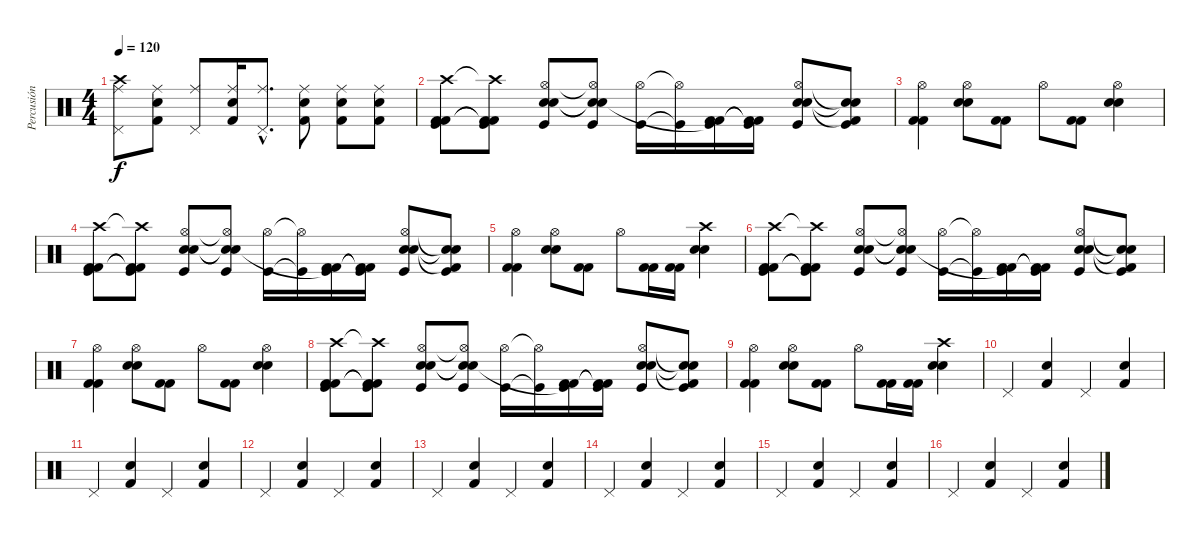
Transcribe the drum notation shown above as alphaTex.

\track ("Percusión" "Percusión") {instrument percussion}
\staff {score}
\articulation defaults
\ts (4 4)
\tempo 120
\clef neutral
\ks c
("Crash high (hit)" "Ride (middle)" "Pedal Hi-Hat (hit)").8{dy f} ("Ride (middle)" "Kick (hit) 2" "Snare (hit) 2").8 ("Ride (middle)" "Pedal Hi-Hat (hit)").8 ("Ride (middle)" "Kick (hit) 2" "Snare (hit) 2").16 ("Ride (middle)"{hac} "Pedal Hi-Hat (hit)"{hac}).8{d} ("Ride (middle)" "Kick (hit) 2" "Snare (hit) 2").8 ("Ride (middle)" "Kick (hit) 2" "Snare (hit) 2").8 ("Ride (middle)" "Kick (hit) 2" "Snare (hit) 2").8 |
("Crash high (hit)" "Kick (hit) 2" "Kick (hit) 2" "Kick (hit)").8 ("Crash high (hit)"{t} "Kick (hit) 2"{t} "Kick (hit) 2"{t} "Kick (hit)").8 ("Hi-Hat (open)" "Electric Snare (hit)" "Electric Snare (hit)" "Kick (hit)").8 ("Hi-Hat (open)"{t} "Electric Snare (hit)"{t} "Electric Snare (hit)"{t} "Kick (hit)").8 ("Hi-Hat (open)" "Kick (hit)").16 ("Hi-Hat (open)"{t} "Kick (hit)"{t}).16 ("Kick (hit) 2" "Kick (hit) 2" "Kick (hit)"{t}).16 ("Kick (hit) 2"{t} "Kick (hit) 2"{t} "Kick (hit)").16 ("Hi-Hat (open)" "Electric Snare (hit)" "Electric Snare (hit)" "Kick (hit)").8 ("Snare (hit)"{t} "Snare (hit)"{t} "Kick (hit) 2"{t} "Kick (hit)").8 |
("Hi-Hat (open)" "Kick (hit) 2" "Kick (hit) 2").4 ("Hi-Hat (open)" "Electric Snare (hit)" "Electric Snare (hit)").8 ("Kick (hit) 2" "Kick (hit) 2").8 "Hi-Hat (open)".8 ("Kick (hit) 2" "Kick (hit) 2").8 ("Hi-Hat (open)" "Electric Snare (hit)" "Electric Snare (hit)").4 |
("Crash high (hit)" "Kick (hit) 2" "Kick (hit) 2" "Kick (hit)").8 ("Crash high (hit)"{t} "Kick (hit) 2"{t} "Kick (hit) 2"{t} "Kick (hit)").8 ("Hi-Hat (open)" "Electric Snare (hit)" "Electric Snare (hit)" "Kick (hit)").8 ("Hi-Hat (open)"{t} "Electric Snare (hit)"{t} "Electric Snare (hit)"{t} "Kick (hit)").8 ("Hi-Hat (open)" "Kick (hit)").16 ("Hi-Hat (open)"{t} "Kick (hit)"{t}).16 ("Kick (hit) 2" "Kick (hit) 2" "Kick (hit)"{t}).16 ("Kick (hit) 2"{t} "Kick (hit) 2"{t} "Kick (hit)").16 ("Hi-Hat (open)" "Electric Snare (hit)" "Electric Snare (hit)" "Kick (hit)").8 ("Snare (hit)"{t} "Snare (hit)"{t} "Kick (hit) 2"{t} "Kick (hit)").8 |
("Hi-Hat (open)" "Kick (hit) 2" "Kick (hit) 2").4 ("Hi-Hat (open)" "Electric Snare (hit)" "Electric Snare (hit)").8 ("Kick (hit) 2" "Kick (hit) 2").8 "Hi-Hat (open)".8 ("Kick (hit) 2" "Kick (hit) 2").16 ("Kick (hit) 2" "Kick (hit) 2").16 ("Crash high (hit)" "Electric Snare (hit)" "Electric Snare (hit)").4 |
("Crash high (hit)" "Kick (hit) 2" "Kick (hit) 2" "Kick (hit)").8 ("Crash high (hit)"{t} "Kick (hit) 2"{t} "Kick (hit) 2"{t} "Kick (hit)").8 ("Hi-Hat (open)" "Electric Snare (hit)" "Electric Snare (hit)" "Kick (hit)").8 ("Hi-Hat (open)"{t} "Electric Snare (hit)"{t} "Electric Snare (hit)"{t} "Kick (hit)").8 ("Hi-Hat (open)" "Kick (hit)").16 ("Hi-Hat (open)"{t} "Kick (hit)"{t}).16 ("Kick (hit) 2" "Kick (hit) 2" "Kick (hit)"{t}).16 ("Kick (hit) 2"{t} "Kick (hit) 2"{t} "Kick (hit)").16 ("Hi-Hat (open)" "Electric Snare (hit)" "Electric Snare (hit)" "Kick (hit)").8 ("Snare (hit)"{t} "Snare (hit)"{t} "Kick (hit) 2"{t} "Kick (hit)").8 |
("Hi-Hat (open)" "Kick (hit) 2" "Kick (hit) 2").4 ("Hi-Hat (open)" "Electric Snare (hit)" "Electric Snare (hit)").8 ("Kick (hit) 2" "Kick (hit) 2").8 "Hi-Hat (open)".8 ("Kick (hit) 2" "Kick (hit) 2").8 ("Hi-Hat (open)" "Electric Snare (hit)" "Electric Snare (hit)").4 |
("Crash high (hit)" "Kick (hit) 2" "Kick (hit) 2" "Kick (hit)").8 ("Crash high (hit)"{t} "Kick (hit) 2"{t} "Kick (hit) 2"{t} "Kick (hit)").8 ("Hi-Hat (open)" "Electric Snare (hit)" "Electric Snare (hit)" "Kick (hit)").8 ("Hi-Hat (open)"{t} "Electric Snare (hit)"{t} "Electric Snare (hit)"{t} "Kick (hit)").8 ("Hi-Hat (open)" "Kick (hit)").16 ("Hi-Hat (open)"{t} "Kick (hit)"{t}).16 ("Kick (hit) 2" "Kick (hit) 2" "Kick (hit)"{t}).16 ("Kick (hit) 2"{t} "Kick (hit) 2"{t} "Kick (hit)").16 ("Hi-Hat (open)" "Electric Snare (hit)" "Electric Snare (hit)" "Kick (hit)").8 ("Snare (hit)"{t} "Snare (hit)"{t} "Kick (hit) 2"{t} "Kick (hit)").8 |
("Hi-Hat (open)" "Kick (hit) 2" "Kick (hit) 2").4 ("Hi-Hat (open)" "Electric Snare (hit)" "Electric Snare (hit)").8 ("Kick (hit) 2" "Kick (hit) 2").8 "Hi-Hat (open)".8 ("Kick (hit) 2" "Kick (hit) 2").16 ("Kick (hit) 2" "Kick (hit) 2").16 ("Crash high (hit)" "Electric Snare (hit)" "Electric Snare (hit)").4 |
"Pedal Hi-Hat (hit)".4 ("Kick (hit) 2" "Snare (hit) 2").4 "Pedal Hi-Hat (hit)".4 ("Kick (hit) 2" "Snare (hit) 2").4 |
"Pedal Hi-Hat (hit)".4 ("Kick (hit) 2" "Snare (hit) 2").4 "Pedal Hi-Hat (hit)".4 ("Kick (hit) 2" "Snare (hit) 2").4 |
"Pedal Hi-Hat (hit)".4 ("Kick (hit) 2" "Snare (hit) 2").4 "Pedal Hi-Hat (hit)".4 ("Kick (hit) 2" "Snare (hit) 2").4 |
"Pedal Hi-Hat (hit)".4 ("Kick (hit) 2" "Snare (hit) 2").4 "Pedal Hi-Hat (hit)".4 ("Kick (hit) 2" "Snare (hit) 2").4 |
"Pedal Hi-Hat (hit)".4 ("Kick (hit) 2" "Snare (hit) 2").4 "Pedal Hi-Hat (hit)".4 ("Kick (hit) 2" "Snare (hit) 2").4 |
"Pedal Hi-Hat (hit)".4 ("Kick (hit) 2" "Snare (hit) 2").4 "Pedal Hi-Hat (hit)".4 ("Kick (hit) 2" "Snare (hit) 2").4 |
"Pedal Hi-Hat (hit)".4 ("Kick (hit) 2" "Snare (hit) 2").4 "Pedal Hi-Hat (hit)".4 ("Kick (hit) 2" "Snare (hit) 2").4
